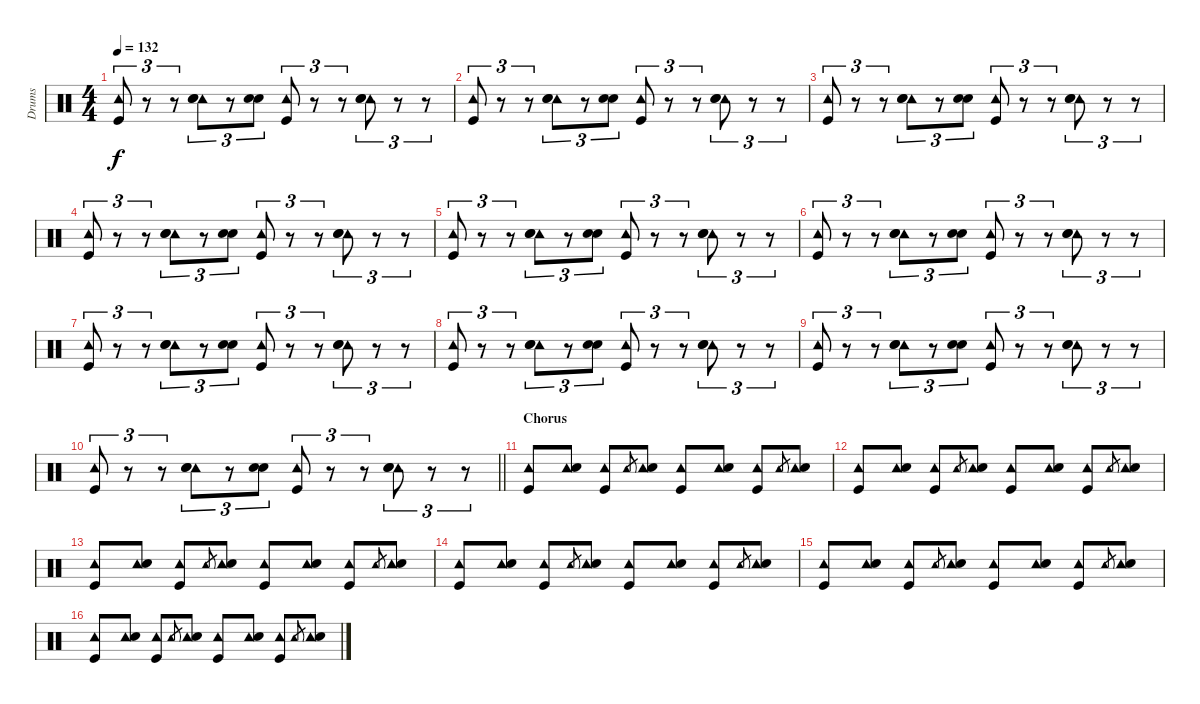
\track ("Drums" "Drums") {instrument percussion}
\staff {score}
\articulation defaults
\ts (4 4)
\tempo 132
\clef neutral
\ks c
("Tambourine (hit)" "Kick (hit)").8{tu (3 2) dy f} r.8{tu (3 2)} r.8{tu (3 2)} ("Tambourine (hit)" "Hand Clap (hit)" "Snare (hit) 2").8{tu (3 2)} r.8{tu (3 2)} ("Hand Clap (hit)" "Snare (hit) 2").8{tu (3 2)} ("Tambourine (hit)" "Kick (hit)").8{tu (3 2)} r.8{tu (3 2)} r.8{tu (3 2)} ("Tambourine (hit)" "Hand Clap (hit)" "Snare (hit) 2").8{tu (3 2)} r.8{tu (3 2)} r.8{tu (3 2)} |
("Tambourine (hit)" "Kick (hit)").8{tu (3 2)} r.8{tu (3 2)} r.8{tu (3 2)} ("Tambourine (hit)" "Hand Clap (hit)" "Snare (hit) 2").8{tu (3 2)} r.8{tu (3 2)} ("Hand Clap (hit)" "Snare (hit) 2").8{tu (3 2)} ("Tambourine (hit)" "Kick (hit)").8{tu (3 2)} r.8{tu (3 2)} r.8{tu (3 2)} ("Tambourine (hit)" "Hand Clap (hit)" "Snare (hit) 2").8{tu (3 2)} r.8{tu (3 2)} r.8{tu (3 2)} |
("Tambourine (hit)" "Kick (hit)").8{tu (3 2)} r.8{tu (3 2)} r.8{tu (3 2)} ("Tambourine (hit)" "Hand Clap (hit)" "Snare (hit) 2").8{tu (3 2)} r.8{tu (3 2)} ("Hand Clap (hit)" "Snare (hit) 2").8{tu (3 2)} ("Tambourine (hit)" "Kick (hit)").8{tu (3 2)} r.8{tu (3 2)} r.8{tu (3 2)} ("Tambourine (hit)" "Hand Clap (hit)" "Snare (hit) 2").8{tu (3 2)} r.8{tu (3 2)} r.8{tu (3 2)} |
("Tambourine (hit)" "Kick (hit)").8{tu (3 2)} r.8{tu (3 2)} r.8{tu (3 2)} ("Tambourine (hit)" "Hand Clap (hit)" "Snare (hit) 2").8{tu (3 2)} r.8{tu (3 2)} ("Hand Clap (hit)" "Snare (hit) 2").8{tu (3 2)} ("Tambourine (hit)" "Kick (hit)").8{tu (3 2)} r.8{tu (3 2)} r.8{tu (3 2)} ("Tambourine (hit)" "Hand Clap (hit)" "Snare (hit) 2").8{tu (3 2)} r.8{tu (3 2)} r.8{tu (3 2)} |
("Tambourine (hit)" "Kick (hit)").8{tu (3 2)} r.8{tu (3 2)} r.8{tu (3 2)} ("Tambourine (hit)" "Hand Clap (hit)" "Snare (hit) 2").8{tu (3 2)} r.8{tu (3 2)} ("Hand Clap (hit)" "Snare (hit) 2").8{tu (3 2)} ("Tambourine (hit)" "Kick (hit)").8{tu (3 2)} r.8{tu (3 2)} r.8{tu (3 2)} ("Tambourine (hit)" "Hand Clap (hit)" "Snare (hit) 2").8{tu (3 2)} r.8{tu (3 2)} r.8{tu (3 2)} |
("Tambourine (hit)" "Kick (hit)").8{tu (3 2)} r.8{tu (3 2)} r.8{tu (3 2)} ("Tambourine (hit)" "Hand Clap (hit)" "Snare (hit) 2").8{tu (3 2)} r.8{tu (3 2)} ("Hand Clap (hit)" "Snare (hit) 2").8{tu (3 2)} ("Tambourine (hit)" "Kick (hit)").8{tu (3 2)} r.8{tu (3 2)} r.8{tu (3 2)} ("Tambourine (hit)" "Hand Clap (hit)" "Snare (hit) 2").8{tu (3 2)} r.8{tu (3 2)} r.8{tu (3 2)} |
("Tambourine (hit)" "Kick (hit)").8{tu (3 2)} r.8{tu (3 2)} r.8{tu (3 2)} ("Tambourine (hit)" "Hand Clap (hit)" "Snare (hit) 2").8{tu (3 2)} r.8{tu (3 2)} ("Hand Clap (hit)" "Snare (hit) 2").8{tu (3 2)} ("Tambourine (hit)" "Kick (hit)").8{tu (3 2)} r.8{tu (3 2)} r.8{tu (3 2)} ("Tambourine (hit)" "Hand Clap (hit)" "Snare (hit) 2").8{tu (3 2)} r.8{tu (3 2)} r.8{tu (3 2)} |
("Tambourine (hit)" "Kick (hit)").8{tu (3 2)} r.8{tu (3 2)} r.8{tu (3 2)} ("Tambourine (hit)" "Hand Clap (hit)" "Snare (hit) 2").8{tu (3 2)} r.8{tu (3 2)} ("Hand Clap (hit)" "Snare (hit) 2").8{tu (3 2)} ("Tambourine (hit)" "Kick (hit)").8{tu (3 2)} r.8{tu (3 2)} r.8{tu (3 2)} ("Tambourine (hit)" "Hand Clap (hit)" "Snare (hit) 2").8{tu (3 2)} r.8{tu (3 2)} r.8{tu (3 2)} |
("Tambourine (hit)" "Kick (hit)").8{tu (3 2)} r.8{tu (3 2)} r.8{tu (3 2)} ("Tambourine (hit)" "Hand Clap (hit)" "Snare (hit) 2").8{tu (3 2)} r.8{tu (3 2)} ("Hand Clap (hit)" "Snare (hit) 2").8{tu (3 2)} ("Tambourine (hit)" "Kick (hit)").8{tu (3 2)} r.8{tu (3 2)} r.8{tu (3 2)} ("Tambourine (hit)" "Hand Clap (hit)" "Snare (hit) 2").8{tu (3 2)} r.8{tu (3 2)} r.8{tu (3 2)} |
\barLineRight lightlight
("Tambourine (hit)" "Kick (hit)").8{tu (3 2)} r.8{tu (3 2)} r.8{tu (3 2)} ("Tambourine (hit)" "Hand Clap (hit)" "Snare (hit) 2").8{tu (3 2)} r.8{tu (3 2)} ("Hand Clap (hit)" "Snare (hit) 2").8{tu (3 2)} ("Tambourine (hit)" "Kick (hit)").8{tu (3 2)} r.8{tu (3 2)} r.8{tu (3 2)} ("Tambourine (hit)" "Hand Clap (hit)" "Snare (hit) 2").8{tu (3 2)} r.8{tu (3 2)} r.8{tu (3 2)} |
\section ("" "Chorus")
("Tambourine (hit)" "Kick (hit)").8 ("Tambourine (hit)" "Snare (hit) 2").8 ("Tambourine (hit)" "Kick (hit)").8 "Tambourine (hit)".8{gr} ("Tambourine (hit)" "Snare (hit) 2").8 ("Tambourine (hit)" "Kick (hit)").8 ("Tambourine (hit)" "Snare (hit) 2").8 ("Tambourine (hit)" "Kick (hit)").8 "Tambourine (hit)".8{gr} ("Tambourine (hit)" "Snare (hit) 2").8 |
("Tambourine (hit)" "Kick (hit)").8 ("Tambourine (hit)" "Snare (hit) 2").8 ("Tambourine (hit)" "Kick (hit)").8 "Tambourine (hit)".8{gr} ("Tambourine (hit)" "Snare (hit) 2").8 ("Tambourine (hit)" "Kick (hit)").8 ("Tambourine (hit)" "Snare (hit) 2").8 ("Tambourine (hit)" "Kick (hit)").8 "Tambourine (hit)".8{gr} ("Tambourine (hit)" "Snare (hit) 2").8 |
("Tambourine (hit)" "Kick (hit)").8 ("Tambourine (hit)" "Snare (hit) 2").8 ("Tambourine (hit)" "Kick (hit)").8 "Tambourine (hit)".8{gr} ("Tambourine (hit)" "Snare (hit) 2").8 ("Tambourine (hit)" "Kick (hit)").8 ("Tambourine (hit)" "Snare (hit) 2").8 ("Tambourine (hit)" "Kick (hit)").8 "Tambourine (hit)".8{gr} ("Tambourine (hit)" "Snare (hit) 2").8 |
("Tambourine (hit)" "Kick (hit)").8 ("Tambourine (hit)" "Snare (hit) 2").8 ("Tambourine (hit)" "Kick (hit)").8 "Tambourine (hit)".8{gr} ("Tambourine (hit)" "Snare (hit) 2").8 ("Tambourine (hit)" "Kick (hit)").8 ("Tambourine (hit)" "Snare (hit) 2").8 ("Tambourine (hit)" "Kick (hit)").8 "Tambourine (hit)".8{gr} ("Tambourine (hit)" "Snare (hit) 2").8 |
("Tambourine (hit)" "Kick (hit)").8 ("Tambourine (hit)" "Snare (hit) 2").8 ("Tambourine (hit)" "Kick (hit)").8 "Tambourine (hit)".8{gr} ("Tambourine (hit)" "Snare (hit) 2").8 ("Tambourine (hit)" "Kick (hit)").8 ("Tambourine (hit)" "Snare (hit) 2").8 ("Tambourine (hit)" "Kick (hit)").8 "Tambourine (hit)".8{gr} ("Tambourine (hit)" "Snare (hit) 2").8 |
("Tambourine (hit)" "Kick (hit)").8 ("Tambourine (hit)" "Snare (hit) 2").8 ("Tambourine (hit)" "Kick (hit)").8 "Tambourine (hit)".8{gr} ("Tambourine (hit)" "Snare (hit) 2").8 ("Tambourine (hit)" "Kick (hit)").8 ("Tambourine (hit)" "Snare (hit) 2").8 ("Tambourine (hit)" "Kick (hit)").8 "Tambourine (hit)".8{gr} ("Tambourine (hit)" "Snare (hit) 2").8
